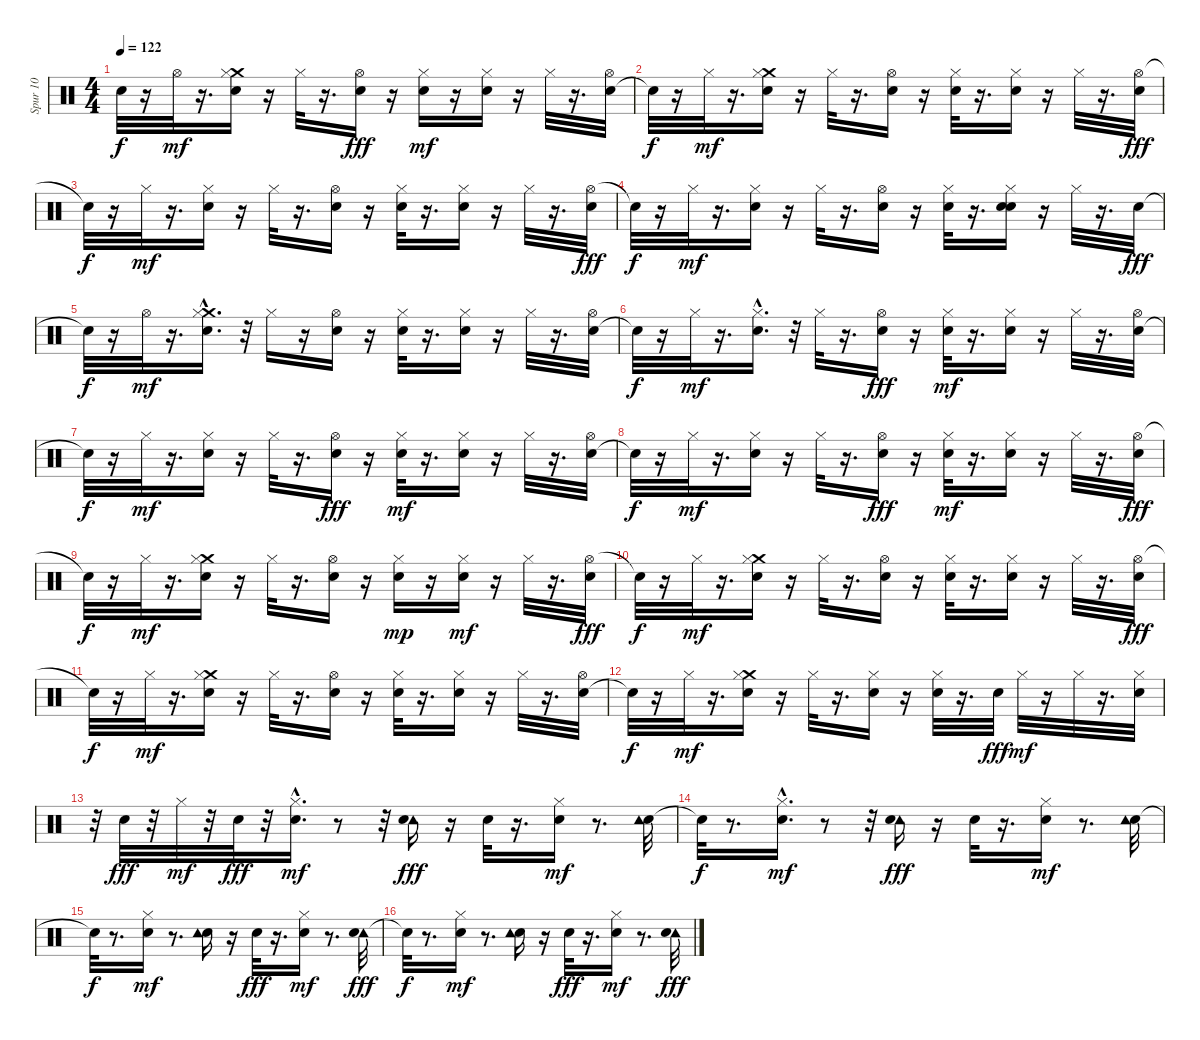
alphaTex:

\track ("Spur 10" "Spur 10") {instrument percussion}
\staff {score}
\articulation defaults
\ts (4 4)
\tempo 122
\clef neutral
\ks c "Snare (hit)"{t}.32{dy f}
r.16 "Hi-Hat (open)".32{dy mf} r.16{d} ("Crash medium (hit)" "Snare (hit)" "Hi-Hat (closed)").16 r.16 "Hi-Hat (closed)".32 r.16{d} ("Hi-Hat (open)" "Snare (hit) 2").16{dy fff} r.16 ("Snare (hit)" "Hi-Hat (closed)").16{dy mf} r.16 ("Snare (hit)" "Hi-Hat (closed)").16 r.16 "Hi-Hat (closed)".32 r.16{d} ("Snare (hit) 2" "Hi-Hat (open)").32 |
"Snare (hit)"{t}.32{dy f} r.16 "Hi-Hat (closed)".32{dy mf} r.16{d} ("Crash medium (hit)" "Snare (hit)" "Hi-Hat (closed)").16 r.16 "Hi-Hat (closed)".32 r.16{d} ("Snare (hit) 2" "Hi-Hat (open)").16 r.16 ("Snare (hit)" "Hi-Hat (closed)").32 r.16{d} ("Snare (hit)" "Hi-Hat (closed)").16 r.16 "Hi-Hat (closed)".32 r.16{d} ("Hi-Hat (open)" "Snare (hit) 2").32{dy fff} |
"Snare (hit)"{t}.32{dy f} r.16 "Hi-Hat (closed)".32{dy mf} r.16{d} ("Snare (hit)" "Hi-Hat (closed)").16 r.16 "Hi-Hat (closed)".32 r.16{d} ("Snare (hit) 2" "Hi-Hat (open)").16 r.16 ("Snare (hit)" "Hi-Hat (closed)").32 r.16{d} ("Snare (hit)" "Hi-Hat (closed)").16 r.16 "Hi-Hat (closed)".32 r.16{d} ("Hi-Hat (open)" "Snare (hit) 2").32{dy fff} |
"Snare (hit)"{t}.32{dy f} r.16 "Hi-Hat (closed)".32{dy mf} r.16{d} ("Snare (hit)" "Hi-Hat (closed)").16 r.16 "Hi-Hat (closed)".32 r.16{d} ("Snare (hit) 2" "Hi-Hat (open)").16 r.16 ("Snare (hit)" "Hi-Hat (closed)").32 r.16{d} ("Snare (hit)" "Snare (hit) 2" "Hi-Hat (closed)").16 r.16 "Hi-Hat (closed)".32 r.16{d} "Snare (hit) 2".32{dy fff} |
"Snare (hit)"{t}.32{dy f} r.16 "Hi-Hat (open)".32{dy mf} r.16{d} ("Snare (hit)"{hac} "Crash medium (hit)" "Hi-Hat (closed)").16{d} r.32 "Hi-Hat (closed)".16 r.16 ("Snare (hit) 2" "Hi-Hat (open)").16 r.16 ("Snare (hit)" "Hi-Hat (closed)").32 r.16{d} ("Snare (hit)" "Hi-Hat (closed)").16 r.16 "Hi-Hat (closed)".32 r.16{d} ("Snare (hit) 2" "Hi-Hat (open)").32 |
"Snare (hit)"{t}.32{dy f} r.16 "Hi-Hat (closed)".32{dy mf} r.16{d} ("Snare (hit)"{hac} "Hi-Hat (closed)").16{d} r.32 "Hi-Hat (closed)".32 r.16{d} ("Hi-Hat (open)" "Snare (hit) 2").16{dy fff} r.16 ("Snare (hit)" "Hi-Hat (closed)").32{dy mf} r.16{d} ("Snare (hit)" "Hi-Hat (closed)").16 r.16 "Hi-Hat (closed)".32 r.16{d} ("Snare (hit) 2" "Hi-Hat (open)").32 |
"Snare (hit)"{t}.32{dy f} r.16 "Hi-Hat (closed)".32{dy mf} r.16{d} ("Snare (hit)" "Hi-Hat (closed)").16 r.16 "Hi-Hat (closed)".32 r.16{d} ("Hi-Hat (open)" "Snare (hit) 2").16{dy fff} r.16 ("Snare (hit)" "Hi-Hat (closed)").32{dy mf} r.16{d} ("Snare (hit)" "Hi-Hat (closed)").16 r.16 "Hi-Hat (closed)".32 r.16{d} ("Snare (hit) 2" "Hi-Hat (open)").32 |
"Snare (hit)"{t}.32{dy f} r.16 "Hi-Hat (closed)".32{dy mf} r.16{d} ("Snare (hit)" "Hi-Hat (closed)").16 r.16 "Hi-Hat (closed)".32 r.16{d} ("Hi-Hat (open)" "Snare (hit) 2").16{dy fff} r.16 ("Snare (hit)" "Hi-Hat (closed)").32{dy mf} r.16{d} ("Snare (hit)" "Hi-Hat (closed)").16 r.16 "Hi-Hat (closed)".32 r.16{d} ("Hi-Hat (open)" "Snare (hit) 2").32{dy fff} |
"Snare (hit)"{t}.32{dy f} r.16 "Hi-Hat (closed)".32{dy mf} r.16{d} ("Crash medium (hit)" "Snare (hit)" "Hi-Hat (closed)").16 r.16 "Hi-Hat (closed)".32 r.16{d} ("Snare (hit) 2" "Hi-Hat (open)").16 r.16 ("Snare (hit)" "Hi-Hat (closed)").16{dy mp} r.16 ("Snare (hit)" "Hi-Hat (closed)").16{dy mf} r.16 "Hi-Hat (closed)".32 r.16{d} ("Hi-Hat (open)" "Snare (hit) 2").32{dy fff} |
"Snare (hit)"{t}.32{dy f} r.16 "Hi-Hat (closed)".32{dy mf} r.16{d} ("Crash medium (hit)" "Snare (hit)" "Hi-Hat (closed)").16 r.16 "Hi-Hat (closed)".32 r.16{d} ("Snare (hit) 2" "Hi-Hat (open)").16 r.16 ("Snare (hit)" "Hi-Hat (closed)").32 r.16{d} ("Snare (hit)" "Hi-Hat (closed)").16 r.16 "Hi-Hat (closed)".32 r.16{d} ("Hi-Hat (open)" "Snare (hit) 2").32{dy fff} |
"Snare (hit)"{t}.32{dy f} r.16 "Hi-Hat (closed)".32{dy mf} r.16{d} ("Snare (hit)" "Crash medium (hit)" "Hi-Hat (closed)").16 r.16 "Hi-Hat (closed)".32 r.16{d} ("Snare (hit) 2" "Hi-Hat (open)").16 r.16 ("Snare (hit)" "Hi-Hat (closed)").32 r.16{d} ("Snare (hit)" "Hi-Hat (closed)").16 r.16 "Hi-Hat (closed)".32 r.16{d} ("Snare (hit) 2" "Hi-Hat (open)").32 |
"Snare (hit)"{t}.32{dy f} r.16 "Hi-Hat (closed)".32{dy mf} r.16{d} ("Snare (hit)" "Crash medium (hit)" "Hi-Hat (closed)").16 r.16 "Hi-Hat (closed)".32 r.16{d} ("Snare (hit) 2" "Hi-Hat (closed)").16 r.16 ("Snare (hit)" "Hi-Hat (closed)").32 r.16{d} "Snare (hit)".32{dy fff} "Hi-Hat (closed)".32{dy mf} r.16 "Hi-Hat (closed)".32 r.16{d} ("Snare (hit) 2" "Hi-Hat (closed)").32 |
r.32 "Snare (hit) 2".32{dy fff} r.32 "Hi-Hat (closed)".32{dy mf} r.32 "Snare (hit) 2".32{dy fff} r.32 ("Snare (hit)"{hac} "Hi-Hat (closed)").16{d dy mf} r.8 r.32 ("Tambourine (hit)" "Snare (hit) 2").16{dy fff} r.16 "Snare (hit)".32 r.16{d} ("Snare (hit)" "Hi-Hat (closed)").16{dy mf} r.8{d} ("Snare (hit) 2" "Tambourine (hit)").32 |
"Snare (hit)"{t}.32{dy f} r.8{d} ("Snare (hit)"{hac} "Hi-Hat (closed)").16{d dy mf} r.8 r.32 ("Tambourine (hit)" "Snare (hit) 2").16{dy fff} r.16 "Snare (hit)".32 r.16{d} ("Snare (hit)" "Hi-Hat (closed)").16{dy mf} r.8{d} ("Snare (hit) 2" "Tambourine (hit)").32 |
"Snare (hit)"{t}.32{dy f} r.8{d} ("Snare (hit)" "Hi-Hat (closed)").16{dy mf} r.8{d} ("Snare (hit) 2" "Tambourine (hit)").16 r.16 "Snare (hit)".32{dy fff} r.16{d} ("Snare (hit)" "Hi-Hat (closed)").16{dy mf} r.8{d} ("Tambourine (hit)" "Snare (hit) 2").32{dy fff} |
"Snare (hit)"{t}.32{dy f} r.8{d} ("Snare (hit)" "Hi-Hat (closed)").16{dy mf} r.8{d} ("Snare (hit) 2" "Tambourine (hit)").16 r.16 "Snare (hit)".32{dy fff} r.16{d} ("Snare (hit)" "Hi-Hat (closed)").16{dy mf} r.8{d} ("Tambourine (hit)" "Snare (hit) 2").32{dy fff}
